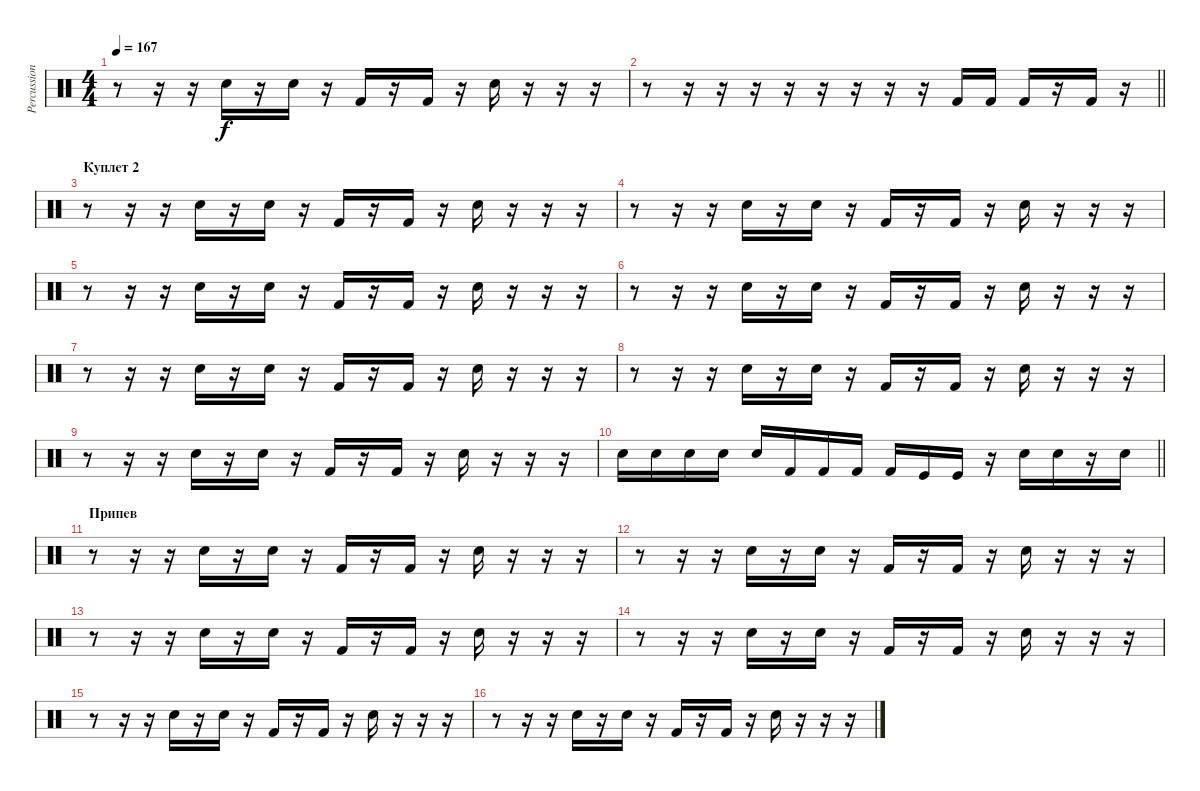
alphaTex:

\track ("Percussion 1" "Percussion") {instrument percussion}
\staff {score}
\articulation defaults
\ts (4 4)
\tempo 167
\clef neutral
\ks c
r.8{dy f} r.16 r.16 "Electric Snare (hit)".16 r.16 "Electric Snare (hit)".16 r.16 "Kick (hit) 2".16 r.16 "Kick (hit) 2".16 r.16 "Snare (hit) 2".16 r.16 r.16 r.16 |
\barLineRight lightlight
r.8 r.16 r.16 r.16 r.16 r.16 r.16 r.16 r.16 "Kick (hit) 2".16 "Kick (hit) 2".16 "Kick (hit) 2".16 r.16 "Kick (hit) 2".16 r.16 |
\section ("" "Куплет 2")
r.8 r.16 r.16 "Electric Snare (hit)".16 r.16 "Electric Snare (hit)".16 r.16 "Kick (hit) 2".16 r.16 "Kick (hit) 2".16 r.16 "Snare (hit) 2".16 r.16 r.16 r.16 |
r.8 r.16 r.16 "Electric Snare (hit)".16 r.16 "Electric Snare (hit)".16 r.16 "Kick (hit) 2".16 r.16 "Kick (hit) 2".16 r.16 "Snare (hit) 2".16 r.16 r.16 r.16 |
r.8 r.16 r.16 "Electric Snare (hit)".16 r.16 "Electric Snare (hit)".16 r.16 "Kick (hit) 2".16 r.16 "Kick (hit) 2".16 r.16 "Snare (hit) 2".16 r.16 r.16 r.16 |
r.8 r.16 r.16 "Electric Snare (hit)".16 r.16 "Electric Snare (hit)".16 r.16 "Kick (hit) 2".16 r.16 "Kick (hit) 2".16 r.16 "Snare (hit) 2".16 r.16 r.16 r.16 |
r.8 r.16 r.16 "Electric Snare (hit)".16 r.16 "Electric Snare (hit)".16 r.16 "Kick (hit) 2".16 r.16 "Kick (hit) 2".16 r.16 "Snare (hit) 2".16 r.16 r.16 r.16 |
r.8 r.16 r.16 "Electric Snare (hit)".16 r.16 "Electric Snare (hit)".16 r.16 "Kick (hit) 2".16 r.16 "Kick (hit) 2".16 r.16 "Snare (hit) 2".16 r.16 r.16 r.16 |
r.8 r.16 r.16 "Electric Snare (hit)".16 r.16 "Electric Snare (hit)".16 r.16 "Kick (hit) 2".16 r.16 "Kick (hit) 2".16 r.16 "Snare (hit) 2".16 r.16 r.16 r.16 |
\barLineRight lightlight "Snare (hit) 2".16 "Snare (hit) 2".16 "Snare (hit) 2".16 "Snare (hit) 2".16 "Snare (hit) 2".16 "Kick (hit) 2".16 "Kick (hit) 2".16 "Kick (hit) 2".16 "Kick (hit) 2".16 "Kick (hit)".16 "Kick (hit)".16
r.16 "Snare (hit) 2".16 "Snare (hit) 2".16 r.16 "Snare (hit) 2".16 |
\section ("" "Припев")
r.8 r.16 r.16 "Electric Snare (hit)".16 r.16 "Electric Snare (hit)".16 r.16 "Kick (hit) 2".16 r.16 "Kick (hit) 2".16 r.16 "Snare (hit) 2".16 r.16 r.16 r.16 |
r.8 r.16 r.16 "Electric Snare (hit)".16 r.16 "Electric Snare (hit)".16 r.16 "Kick (hit) 2".16 r.16 "Kick (hit) 2".16 r.16 "Snare (hit) 2".16 r.16 r.16 r.16 |
r.8 r.16 r.16 "Electric Snare (hit)".16 r.16 "Electric Snare (hit)".16 r.16 "Kick (hit) 2".16 r.16 "Kick (hit) 2".16 r.16 "Snare (hit) 2".16 r.16 r.16 r.16 |
r.8 r.16 r.16 "Electric Snare (hit)".16 r.16 "Electric Snare (hit)".16 r.16 "Kick (hit) 2".16 r.16 "Kick (hit) 2".16 r.16 "Snare (hit) 2".16 r.16 r.16 r.16 |
r.8 r.16 r.16 "Electric Snare (hit)".16 r.16 "Electric Snare (hit)".16 r.16 "Kick (hit) 2".16 r.16 "Kick (hit) 2".16 r.16 "Snare (hit) 2".16 r.16 r.16 r.16 |
r.8 r.16 r.16 "Electric Snare (hit)".16 r.16 "Electric Snare (hit)".16 r.16 "Kick (hit) 2".16 r.16 "Kick (hit) 2".16 r.16 "Snare (hit) 2".16 r.16 r.16 r.16
